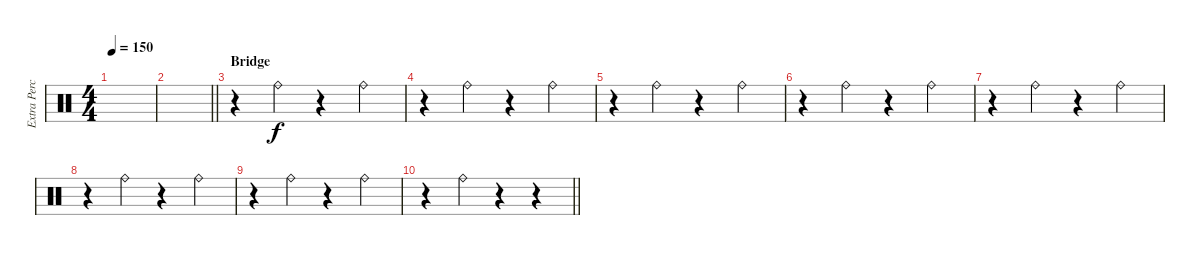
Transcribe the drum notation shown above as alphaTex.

\track ("Extra Percussion" "Extra Perc") {instrument percussion}
\staff {score}
\articulation defaults
\ts (4 4)
\tempo 150
\clef neutral
\ks c
|
\barLineRight lightlight
|
\section ("" "Bridge")
r.4{volume 11 balance 16} "Ride (bell)".4 r.4 "Ride (bell)".4 |
r.4 "Ride (bell)".4 r.4 "Ride (bell)".4 |
r.4 "Ride (bell)".4 r.4 "Ride (bell)".4 |
r.4 "Ride (bell)".4 r.4 "Ride (bell)".4 |
r.4 "Ride (bell)".4 r.4 "Ride (bell)".4 |
r.4 "Ride (bell)".4 r.4 "Ride (bell)".4 |
r.4 "Ride (bell)".4 r.4 "Ride (bell)".4 |
\barLineRight lightlight
r.4 "Ride (bell)".4 r.4 r.4
